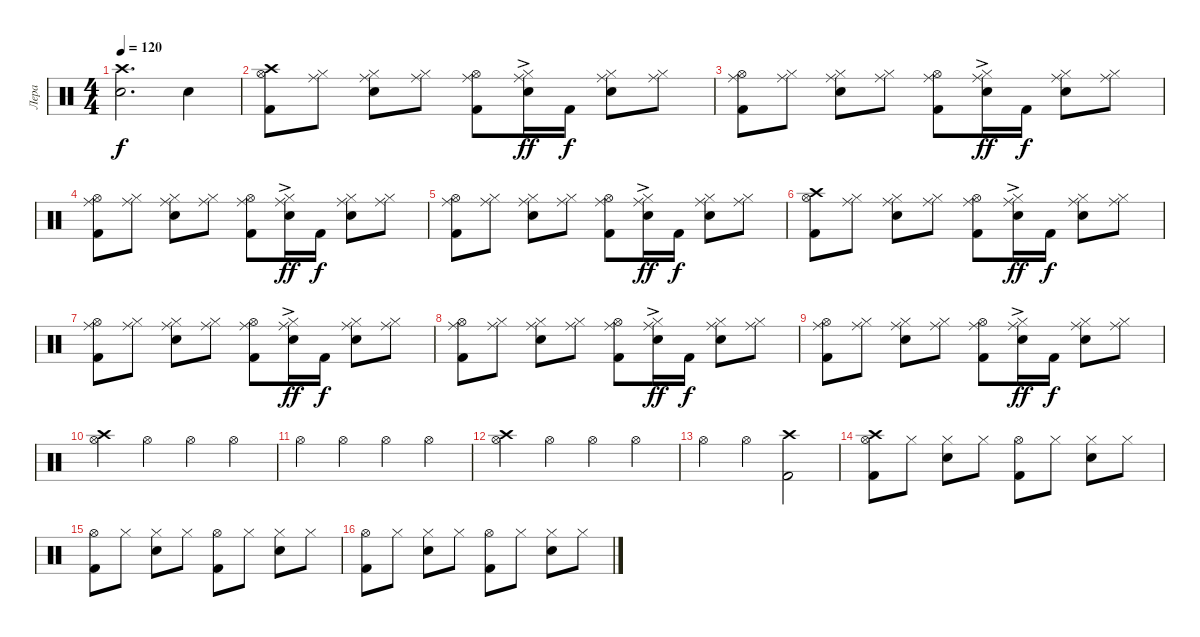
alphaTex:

\track ("Лера" "Лера") {instrument percussion}
\staff {score}
\articulation defaults
\ts (4 4)
\tempo 120
\clef neutral
\ks c
("Electric Snare (hit)" "Crash high (hit)").2{d dy f} "Electric Snare (hit)".4 |
("Hi-Hat (open)" "Kick (hit) 2" "Crash high (hit)").8 ("Hi-Hat (closed)" "Ride (middle)").8 ("Hi-Hat (closed)" "Electric Snare (hit)" "Ride (middle)").8 ("Hi-Hat (closed)" "Ride (middle)").8 ("Hi-Hat (open)" "Kick (hit) 2" "Ride (middle)").8 ("Hi-Hat (closed)" "Electric Snare (hit)"{ac} "Ride (middle)").16{dy ff} "Kick (hit) 2".16{dy f} ("Hi-Hat (closed)" "Electric Snare (hit)" "Ride (middle)").8 ("Hi-Hat (closed)" "Ride (middle)").8 |
("Hi-Hat (open)" "Kick (hit) 2" "Ride (middle)").8 ("Hi-Hat (closed)" "Ride (middle)").8 ("Hi-Hat (closed)" "Electric Snare (hit)" "Ride (middle)").8 ("Hi-Hat (closed)" "Ride (middle)").8 ("Hi-Hat (open)" "Kick (hit) 2" "Ride (middle)").8 ("Hi-Hat (closed)" "Electric Snare (hit)"{ac} "Ride (middle)").16{dy ff} "Kick (hit) 2".16{dy f} ("Hi-Hat (closed)" "Electric Snare (hit)" "Ride (middle)").8 ("Hi-Hat (closed)" "Ride (middle)").8 |
("Hi-Hat (open)" "Kick (hit) 2" "Ride (middle)").8 ("Hi-Hat (closed)" "Ride (middle)").8 ("Hi-Hat (closed)" "Electric Snare (hit)" "Ride (middle)").8 ("Hi-Hat (closed)" "Ride (middle)").8 ("Hi-Hat (open)" "Kick (hit) 2" "Ride (middle)").8 ("Hi-Hat (closed)" "Electric Snare (hit)"{ac} "Ride (middle)").16{dy ff} "Kick (hit) 2".16{dy f} ("Hi-Hat (closed)" "Electric Snare (hit)" "Ride (middle)").8 ("Hi-Hat (closed)" "Ride (middle)").8 |
("Hi-Hat (open)" "Kick (hit) 2" "Ride (middle)").8 ("Hi-Hat (closed)" "Ride (middle)").8 ("Hi-Hat (closed)" "Electric Snare (hit)" "Ride (middle)").8 ("Hi-Hat (closed)" "Ride (middle)").8 ("Hi-Hat (open)" "Kick (hit) 2" "Ride (middle)").8 ("Hi-Hat (closed)" "Electric Snare (hit)"{ac} "Ride (middle)").16{dy ff} "Kick (hit) 2".16{dy f} ("Hi-Hat (closed)" "Electric Snare (hit)" "Ride (middle)").8 ("Hi-Hat (closed)" "Ride (middle)").8 |
("Hi-Hat (open)" "Kick (hit) 2" "Crash high (hit)").8 ("Hi-Hat (closed)" "Ride (middle)").8 ("Hi-Hat (closed)" "Electric Snare (hit)" "Ride (middle)").8 ("Hi-Hat (closed)" "Ride (middle)").8 ("Hi-Hat (open)" "Kick (hit) 2" "Ride (middle)").8 ("Hi-Hat (closed)" "Electric Snare (hit)"{ac} "Ride (middle)").16{dy ff} "Kick (hit) 2".16{dy f} ("Hi-Hat (closed)" "Electric Snare (hit)" "Ride (middle)").8 ("Hi-Hat (closed)" "Ride (middle)").8 |
("Hi-Hat (open)" "Kick (hit) 2" "Ride (middle)").8 ("Hi-Hat (closed)" "Ride (middle)").8 ("Hi-Hat (closed)" "Electric Snare (hit)" "Ride (middle)").8 ("Hi-Hat (closed)" "Ride (middle)").8 ("Hi-Hat (open)" "Kick (hit) 2" "Ride (middle)").8 ("Hi-Hat (closed)" "Electric Snare (hit)"{ac} "Ride (middle)").16{dy ff} "Kick (hit) 2".16{dy f} ("Hi-Hat (closed)" "Electric Snare (hit)" "Ride (middle)").8 ("Hi-Hat (closed)" "Ride (middle)").8 |
("Hi-Hat (open)" "Kick (hit) 2" "Ride (middle)").8 ("Hi-Hat (closed)" "Ride (middle)").8 ("Hi-Hat (closed)" "Electric Snare (hit)" "Ride (middle)").8 ("Hi-Hat (closed)" "Ride (middle)").8 ("Hi-Hat (open)" "Kick (hit) 2" "Ride (middle)").8 ("Hi-Hat (closed)" "Electric Snare (hit)"{ac} "Ride (middle)").16{dy ff} "Kick (hit) 2".16{dy f} ("Hi-Hat (closed)" "Electric Snare (hit)" "Ride (middle)").8 ("Hi-Hat (closed)" "Ride (middle)").8 |
("Hi-Hat (open)" "Kick (hit) 2" "Ride (middle)").8 ("Hi-Hat (closed)" "Ride (middle)").8 ("Hi-Hat (closed)" "Electric Snare (hit)" "Ride (middle)").8 ("Hi-Hat (closed)" "Ride (middle)").8 ("Hi-Hat (open)" "Kick (hit) 2" "Ride (middle)").8 ("Hi-Hat (closed)" "Electric Snare (hit)"{ac} "Ride (middle)").16{dy ff} "Kick (hit) 2".16{dy f} ("Hi-Hat (closed)" "Electric Snare (hit)" "Ride (middle)").8 ("Hi-Hat (closed)" "Ride (middle)").8 |
("Crash high (hit)" "Hi-Hat (open)").4 "Hi-Hat (open)".4 "Hi-Hat (open)".4 "Hi-Hat (open)".4 |
"Hi-Hat (open)".4 "Hi-Hat (open)".4 "Hi-Hat (open)".4 "Hi-Hat (open)".4 |
("Crash high (hit)" "Hi-Hat (open)").4 "Hi-Hat (open)".4 "Hi-Hat (open)".4 "Hi-Hat (open)".4 |
"Hi-Hat (open)".4 "Hi-Hat (open)".4 ("Crash high (hit)" "Kick (hit) 2").2 |
("Hi-Hat (open)" "Kick (hit) 2" "Crash high (hit)").8 "Hi-Hat (closed)".8 ("Hi-Hat (closed)" "Electric Snare (hit)").8 "Hi-Hat (closed)".8 ("Hi-Hat (open)" "Kick (hit) 2").8 "Hi-Hat (closed)".8 ("Hi-Hat (closed)" "Electric Snare (hit)").8 "Hi-Hat (closed)".8 |
("Hi-Hat (open)" "Kick (hit) 2").8 "Hi-Hat (closed)".8 ("Hi-Hat (closed)" "Electric Snare (hit)").8 "Hi-Hat (closed)".8 ("Hi-Hat (open)" "Kick (hit) 2").8 "Hi-Hat (closed)".8 ("Hi-Hat (closed)" "Electric Snare (hit)").8 "Hi-Hat (closed)".8 |
("Hi-Hat (open)" "Kick (hit) 2").8 "Hi-Hat (closed)".8 ("Hi-Hat (closed)" "Electric Snare (hit)").8 "Hi-Hat (closed)".8 ("Hi-Hat (open)" "Kick (hit) 2").8 "Hi-Hat (closed)".8 ("Hi-Hat (closed)" "Electric Snare (hit)").8 "Hi-Hat (closed)".8
